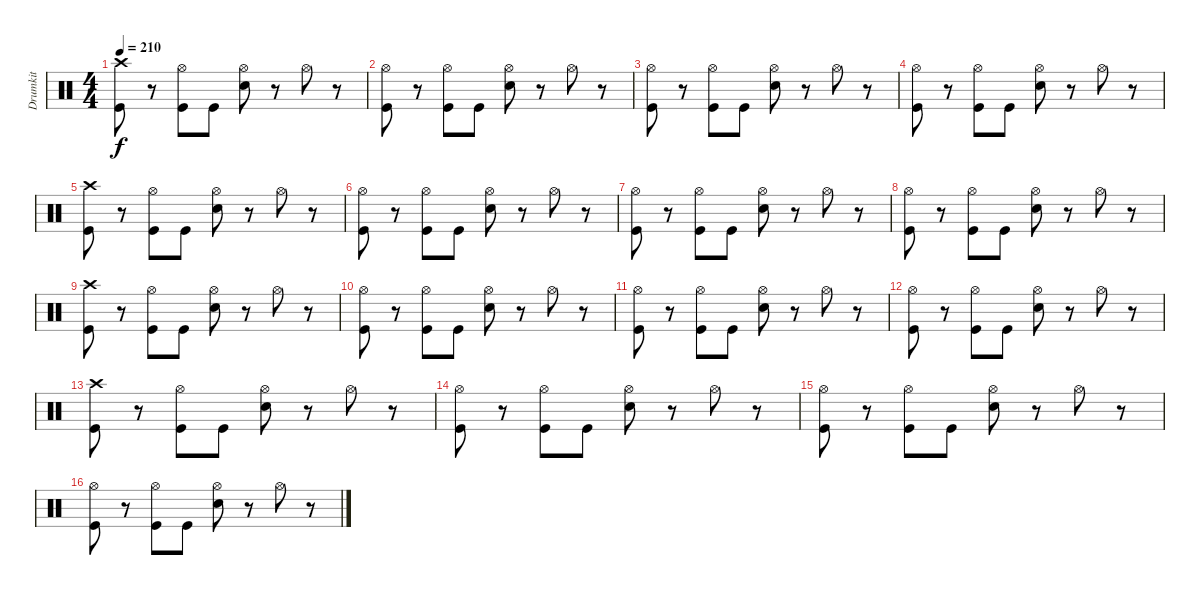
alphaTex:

\track ("Drumkit" "Drumkit") {instrument percussion}
\staff {score}
\articulation defaults
\ts (4 4)
\tempo 210
\clef neutral
\ks c
("Crash high (hit)" "Kick (hit)").8{dy f} r.8 ("Hi-Hat (open)" "Kick (hit)").8 "Kick (hit)".8 ("Hi-Hat (open)" "Snare (hit) 2").8 r.8 "Hi-Hat (open)".8 r.8 |
("Hi-Hat (open)" "Kick (hit)").8 r.8 ("Hi-Hat (open)" "Kick (hit)").8 "Kick (hit)".8 ("Hi-Hat (open)" "Snare (hit) 2").8 r.8 "Hi-Hat (open)".8 r.8 |
("Hi-Hat (open)" "Kick (hit)").8 r.8 ("Hi-Hat (open)" "Kick (hit)").8 "Kick (hit)".8 ("Hi-Hat (open)" "Snare (hit) 2").8 r.8 "Hi-Hat (open)".8 r.8 |
("Hi-Hat (open)" "Kick (hit)").8 r.8 ("Hi-Hat (open)" "Kick (hit)").8 "Kick (hit)".8 ("Hi-Hat (open)" "Snare (hit) 2").8 r.8 "Hi-Hat (open)".8 r.8 |
("Crash high (hit)" "Kick (hit)").8 r.8 ("Hi-Hat (open)" "Kick (hit)").8 "Kick (hit)".8 ("Hi-Hat (open)" "Snare (hit) 2").8 r.8 "Hi-Hat (open)".8 r.8 |
("Hi-Hat (open)" "Kick (hit)").8 r.8 ("Hi-Hat (open)" "Kick (hit)").8 "Kick (hit)".8 ("Hi-Hat (open)" "Snare (hit) 2").8 r.8 "Hi-Hat (open)".8 r.8 |
("Hi-Hat (open)" "Kick (hit)").8 r.8 ("Hi-Hat (open)" "Kick (hit)").8 "Kick (hit)".8 ("Hi-Hat (open)" "Snare (hit) 2").8 r.8 "Hi-Hat (open)".8 r.8 |
("Hi-Hat (open)" "Kick (hit)").8 r.8 ("Hi-Hat (open)" "Kick (hit)").8 "Kick (hit)".8 ("Hi-Hat (open)" "Snare (hit) 2").8 r.8 "Hi-Hat (open)".8 r.8 |
("Crash high (hit)" "Kick (hit)").8 r.8 ("Hi-Hat (open)" "Kick (hit)").8 "Kick (hit)".8 ("Hi-Hat (open)" "Snare (hit) 2").8 r.8 "Hi-Hat (open)".8 r.8 |
("Hi-Hat (open)" "Kick (hit)").8 r.8 ("Hi-Hat (open)" "Kick (hit)").8 "Kick (hit)".8 ("Hi-Hat (open)" "Snare (hit) 2").8 r.8 "Hi-Hat (open)".8 r.8 |
("Hi-Hat (open)" "Kick (hit)").8 r.8 ("Hi-Hat (open)" "Kick (hit)").8 "Kick (hit)".8 ("Hi-Hat (open)" "Snare (hit) 2").8 r.8 "Hi-Hat (open)".8 r.8 |
("Hi-Hat (open)" "Kick (hit)").8 r.8 ("Hi-Hat (open)" "Kick (hit)").8 "Kick (hit)".8 ("Hi-Hat (open)" "Snare (hit) 2").8 r.8 "Hi-Hat (open)".8 r.8 |
("Crash high (hit)" "Kick (hit)").8 r.8 ("Hi-Hat (open)" "Kick (hit)").8 "Kick (hit)".8 ("Hi-Hat (open)" "Snare (hit) 2").8 r.8 "Hi-Hat (open)".8 r.8 |
("Hi-Hat (open)" "Kick (hit)").8 r.8 ("Hi-Hat (open)" "Kick (hit)").8 "Kick (hit)".8 ("Hi-Hat (open)" "Snare (hit) 2").8 r.8 "Hi-Hat (open)".8 r.8 |
("Hi-Hat (open)" "Kick (hit)").8 r.8 ("Hi-Hat (open)" "Kick (hit)").8 "Kick (hit)".8 ("Hi-Hat (open)" "Snare (hit) 2").8 r.8 "Hi-Hat (open)".8 r.8 |
("Hi-Hat (open)" "Kick (hit)").8 r.8 ("Hi-Hat (open)" "Kick (hit)").8 "Kick (hit)".8 ("Hi-Hat (open)" "Snare (hit) 2").8 r.8 "Hi-Hat (open)".8 r.8
